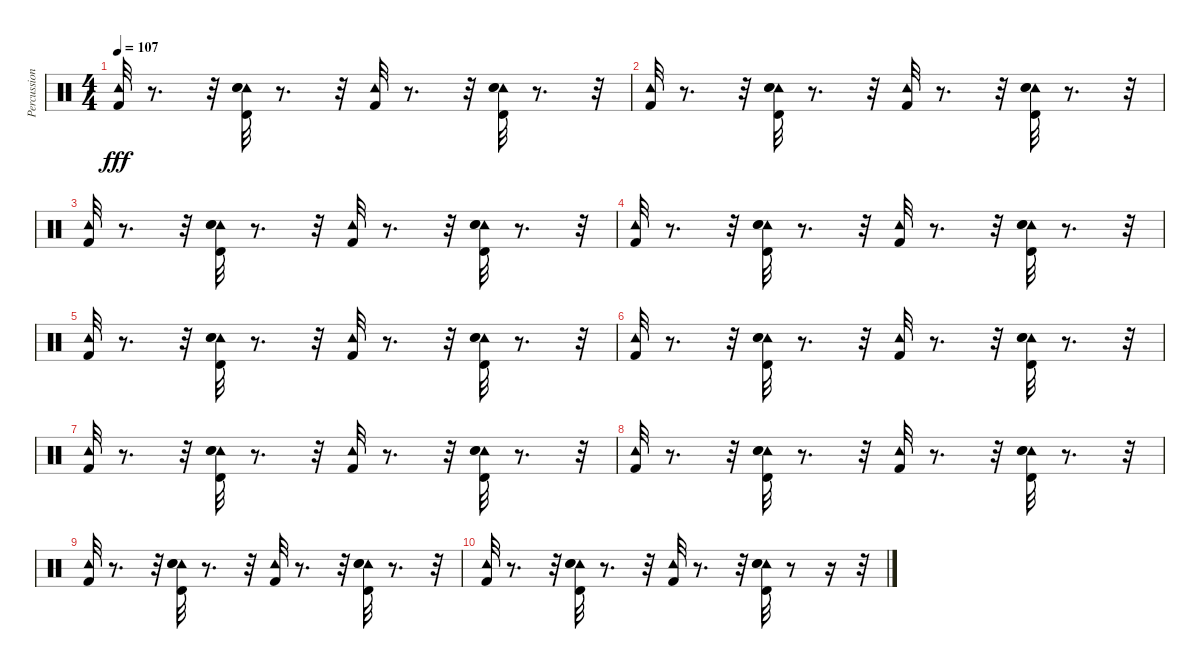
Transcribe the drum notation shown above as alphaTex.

\track ("Percussion" "Percussion") {instrument percussion}
\staff {score}
\articulation defaults
\ts (4 4)
\tempo 107
\clef neutral
\ks c
("Tambourine (hit)" "Kick (hit) 2").32{dy fff} r.8{d} r.32 ("Tambourine (hit)" "Timbale high (hit)" "Electric Snare (hit)" "Snare (hit) 2").32 r.8{d} r.32 ("Tambourine (hit)" "Kick (hit) 2").32 r.8{d} r.32 ("Tambourine (hit)" "Timbale high (hit)" "Electric Snare (hit)" "Snare (hit) 2").32 r.8{d} r.32 |
("Tambourine (hit)" "Kick (hit) 2").32 r.8{d} r.32 ("Tambourine (hit)" "Timbale high (hit)" "Electric Snare (hit)" "Snare (hit) 2").32 r.8{d} r.32 ("Tambourine (hit)" "Kick (hit) 2").32 r.8{d} r.32 ("Tambourine (hit)" "Timbale high (hit)" "Electric Snare (hit)" "Snare (hit) 2").32 r.8{d} r.32 |
("Tambourine (hit)" "Kick (hit) 2").32 r.8{d} r.32 ("Tambourine (hit)" "Timbale high (hit)" "Electric Snare (hit)" "Snare (hit) 2").32 r.8{d} r.32 ("Tambourine (hit)" "Kick (hit) 2").32 r.8{d} r.32 ("Tambourine (hit)" "Timbale high (hit)" "Electric Snare (hit)" "Snare (hit) 2").32 r.8{d} r.32 |
("Tambourine (hit)" "Kick (hit) 2").32 r.8{d} r.32 ("Tambourine (hit)" "Timbale high (hit)" "Electric Snare (hit)" "Snare (hit) 2").32 r.8{d} r.32 ("Tambourine (hit)" "Kick (hit) 2").32 r.8{d} r.32 ("Tambourine (hit)" "Timbale high (hit)" "Electric Snare (hit)" "Snare (hit) 2").32 r.8{d} r.32 |
("Tambourine (hit)" "Kick (hit) 2").32 r.8{d} r.32 ("Tambourine (hit)" "Timbale high (hit)" "Electric Snare (hit)" "Snare (hit) 2").32 r.8{d} r.32 ("Tambourine (hit)" "Kick (hit) 2").32 r.8{d} r.32 ("Tambourine (hit)" "Timbale high (hit)" "Electric Snare (hit)" "Snare (hit) 2").32 r.8{d} r.32 |
("Tambourine (hit)" "Kick (hit) 2").32 r.8{d} r.32 ("Tambourine (hit)" "Timbale high (hit)" "Electric Snare (hit)" "Snare (hit) 2").32 r.8{d} r.32 ("Tambourine (hit)" "Kick (hit) 2").32 r.8{d} r.32 ("Tambourine (hit)" "Timbale high (hit)" "Electric Snare (hit)" "Snare (hit) 2").32 r.8{d} r.32 |
("Tambourine (hit)" "Kick (hit) 2").32 r.8{d} r.32 ("Tambourine (hit)" "Timbale high (hit)" "Electric Snare (hit)" "Snare (hit) 2").32 r.8{d} r.32 ("Tambourine (hit)" "Kick (hit) 2").32 r.8{d} r.32 ("Tambourine (hit)" "Timbale high (hit)" "Electric Snare (hit)" "Snare (hit) 2").32 r.8{d} r.32 |
("Tambourine (hit)" "Kick (hit) 2").32 r.8{d} r.32 ("Tambourine (hit)" "Timbale high (hit)" "Electric Snare (hit)" "Snare (hit) 2").32 r.8{d} r.32 ("Tambourine (hit)" "Kick (hit) 2").32 r.8{d} r.32 ("Tambourine (hit)" "Timbale high (hit)" "Electric Snare (hit)" "Snare (hit) 2").32 r.8{d} r.32 |
("Tambourine (hit)" "Kick (hit) 2").32 r.8{d} r.32 ("Tambourine (hit)" "Timbale high (hit)" "Electric Snare (hit)" "Snare (hit) 2").32 r.8{d} r.32 ("Tambourine (hit)" "Kick (hit) 2").32 r.8{d} r.32 ("Tambourine (hit)" "Timbale high (hit)" "Electric Snare (hit)" "Snare (hit) 2").32 r.8{d} r.32 |
("Tambourine (hit)" "Kick (hit) 2").32 r.8{d} r.32 ("Tambourine (hit)" "Timbale high (hit)" "Electric Snare (hit)" "Snare (hit) 2").32 r.8{d} r.32 ("Tambourine (hit)" "Kick (hit) 2").32 r.8{d} r.32 ("Tambourine (hit)" "Timbale high (hit)" "Electric Snare (hit)" "Snare (hit) 2").32 r.8 r.16 r.32
